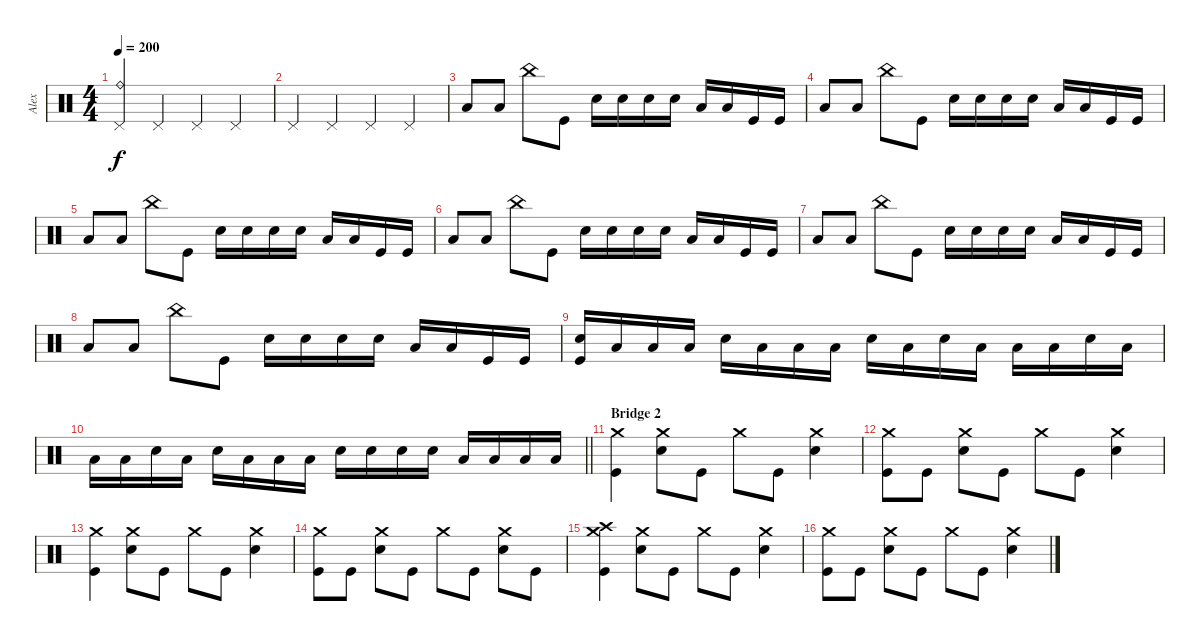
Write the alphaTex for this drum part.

\track ("Alex" "Alex") {instrument percussion}
\staff {score}
\articulation defaults
\ts (4 4)
\tempo 200
\clef neutral
\ks c
("Ride (bell)" "Pedal Hi-Hat (hit)").4{dy f} "Pedal Hi-Hat (hit)".4 "Pedal Hi-Hat (hit)".4 "Pedal Hi-Hat (hit)".4 |
"Pedal Hi-Hat (hit)".4 "Pedal Hi-Hat (hit)".4 "Pedal Hi-Hat (hit)".4 "Pedal Hi-Hat (hit)".4 |
"Low Floor Tom (hit)".8 "Low Tom (hit)".8 "China (hit)".8 "Kick (hit)".8 "Snare (hit) 2".16 "Snare (hit) 2".16 "Snare (hit) 2".16 "Snare (hit) 2".16 "Low Tom (hit)".16 "Low Tom (hit)".16 "Kick (hit)".16 "Kick (hit)".16 |
"Low Floor Tom (hit)".8 "Low Tom (hit)".8 "China (hit)".8 "Kick (hit)".8 "Snare (hit) 2".16 "Snare (hit) 2".16 "Snare (hit) 2".16 "Snare (hit) 2".16 "Low Tom (hit)".16 "Low Tom (hit)".16 "Kick (hit)".16 "Kick (hit)".16 |
"Low Floor Tom (hit)".8 "Low Tom (hit)".8 "China (hit)".8 "Kick (hit)".8 "Snare (hit) 2".16 "Snare (hit) 2".16 "Snare (hit) 2".16 "Snare (hit) 2".16 "Low Tom (hit)".16 "Low Tom (hit)".16 "Kick (hit)".16 "Kick (hit)".16 |
"Low Floor Tom (hit)".8 "Low Tom (hit)".8 "China (hit)".8 "Kick (hit)".8 "Snare (hit) 2".16 "Snare (hit) 2".16 "Snare (hit) 2".16 "Snare (hit) 2".16 "Low Tom (hit)".16 "Low Tom (hit)".16 "Kick (hit)".16 "Kick (hit)".16 |
"Low Floor Tom (hit)".8 "Low Tom (hit)".8 "China (hit)".8 "Kick (hit)".8 "Snare (hit) 2".16 "Snare (hit) 2".16 "Snare (hit) 2".16 "Snare (hit) 2".16 "Low Tom (hit)".16 "Low Tom (hit)".16 "Kick (hit)".16 "Kick (hit)".16 |
"Low Floor Tom (hit)".8 "Low Tom (hit)".8 "China (hit)".8 "Kick (hit)".8 "Snare (hit) 2".16 "Snare (hit) 2".16 "Snare (hit) 2".16 "Snare (hit) 2".16 "Low Tom (hit)".16 "Low Tom (hit)".16 "Kick (hit)".16 "Kick (hit)".16 |
("Snare (hit) 2" "Kick (hit)").16 "Low Tom (hit)".16 "Low Tom (hit)".16 "Low Tom (hit)".16 "Snare (hit) 2".16 "Low Tom (hit)".16 "Low Tom (hit)".16 "Low Tom (hit)".16 "Snare (hit) 2".16 "Low Tom (hit)".16 "Snare (hit) 2".16 "Low Tom (hit)".16 "Low Tom (hit)".16 "Low Tom (hit)".16 "Snare (hit) 2".16 "Low Tom (hit)".16 |
\barLineRight lightlight "Low Tom (hit)".16 "Low Tom (hit)".16 "Snare (hit) 2".16 "Low Tom (hit)".16 "Snare (hit) 2".16 "Low Tom (hit)".16 "Low Tom (hit)".16 "Low Tom (hit)".16 "Snare (hit) 2".16 "Snare (hit) 2".16 "Snare (hit) 2".16 "Snare (hit) 2".16 "Low Floor Tom (hit)".16 "Low Floor Tom (hit)".16 "Low Floor Tom (hit)".16 "Low Floor Tom (hit)".16
|
\section ("" "Bridge 2")
("Crash medium (hit)" "Kick (hit)").4 ("Crash medium (hit)" "Snare (hit) 2").8 "Kick (hit)".8 "Crash medium (hit)".8 "Kick (hit)".8 ("Crash medium (hit)" "Snare (hit) 2").4 |
("Crash medium (hit)" "Kick (hit)").8 "Kick (hit)".8 ("Crash medium (hit)" "Snare (hit) 2").8 "Kick (hit)".8 "Crash medium (hit)".8 "Kick (hit)".8 ("Crash medium (hit)" "Snare (hit) 2").4 |
("Crash medium (hit)" "Kick (hit)").4 ("Crash medium (hit)" "Snare (hit) 2").8 "Kick (hit)".8 "Crash medium (hit)".8 "Kick (hit)".8 ("Crash medium (hit)" "Snare (hit) 2").4 |
("Crash medium (hit)" "Kick (hit)").8 "Kick (hit)".8 ("Crash medium (hit)" "Snare (hit) 2").8 "Kick (hit)".8 "Crash medium (hit)".8 "Kick (hit)".8 ("Crash medium (hit)" "Snare (hit) 2").8 "Kick (hit)".8 |
("Crash high (hit)" "Crash medium (hit)" "Kick (hit)").4 ("Crash medium (hit)" "Snare (hit) 2").8 "Kick (hit)".8 "Crash medium (hit)".8 "Kick (hit)".8 ("Crash medium (hit)" "Snare (hit) 2").4 |
("Crash medium (hit)" "Kick (hit)").8 "Kick (hit)".8 ("Crash medium (hit)" "Snare (hit) 2").8 "Kick (hit)".8 "Crash medium (hit)".8 "Kick (hit)".8 ("Crash medium (hit)" "Snare (hit) 2").4
